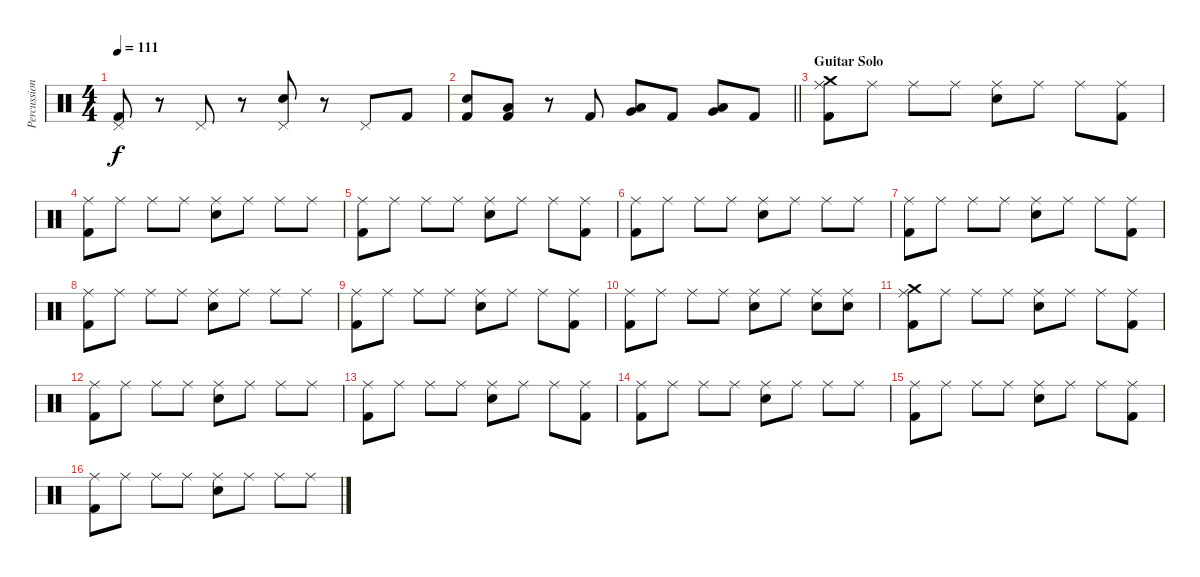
\track ("Percussion" "Percussion") {instrument percussion}
\staff {score}
\articulation defaults
\ts (4 4)
\tempo 111
\clef neutral
\ks c
("Pedal Hi-Hat (hit)" "Kick (hit) 2").8{dy f} r.8 "Pedal Hi-Hat (hit)".8 r.8 ("Pedal Hi-Hat (hit)" "Snare (hit) 2").8 r.8 "Pedal Hi-Hat (hit)".8 "Kick (hit) 2".8 |
\barLineRight lightlight
("Snare (hit) 2" "Kick (hit) 2").8 ("Low Tom (hit)" "Kick (hit) 2").8 r.8 "Kick (hit) 2".8 ("Low Tom (hit)" "Very Low Tom (hit)").8 "Kick (hit) 2".8 ("Very Low Tom (hit)" "Low Floor Tom (hit)").8 "Kick (hit) 2".8 |
\section ("" "Guitar Solo")
("Ride (middle)" "Crash medium (hit)" "Kick (hit) 2").8 "Ride (middle)".8 "Ride (middle)".8 "Ride (middle)".8 ("Ride (middle)" "Snare (hit) 2").8 "Ride (middle)".8 "Ride (middle)".8 ("Ride (middle)" "Kick (hit) 2").8 |
("Ride (middle)" "Kick (hit) 2").8 "Ride (middle)".8 "Ride (middle)".8 "Ride (middle)".8 ("Ride (middle)" "Snare (hit) 2").8 "Ride (middle)".8 "Ride (middle)".8 "Ride (middle)".8 |
("Ride (middle)" "Kick (hit) 2").8 "Ride (middle)".8 "Ride (middle)".8 "Ride (middle)".8 ("Ride (middle)" "Snare (hit) 2").8 "Ride (middle)".8 "Ride (middle)".8 ("Ride (middle)" "Kick (hit) 2").8 |
("Ride (middle)" "Kick (hit) 2").8 "Ride (middle)".8 "Ride (middle)".8 "Ride (middle)".8 ("Ride (middle)" "Snare (hit) 2").8 "Ride (middle)".8 "Ride (middle)".8 "Ride (middle)".8 |
("Ride (middle)" "Kick (hit) 2").8 "Ride (middle)".8 "Ride (middle)".8 "Ride (middle)".8 ("Ride (middle)" "Snare (hit) 2").8 "Ride (middle)".8 "Ride (middle)".8 ("Ride (middle)" "Kick (hit) 2").8 |
("Ride (middle)" "Kick (hit) 2").8 "Ride (middle)".8 "Ride (middle)".8 "Ride (middle)".8 ("Ride (middle)" "Snare (hit) 2").8 "Ride (middle)".8 "Ride (middle)".8 "Ride (middle)".8 |
("Ride (middle)" "Kick (hit) 2").8 "Ride (middle)".8 "Ride (middle)".8 "Ride (middle)".8 ("Ride (middle)" "Snare (hit) 2").8 "Ride (middle)".8 "Ride (middle)".8 ("Ride (middle)" "Kick (hit) 2").8 |
("Ride (middle)" "Kick (hit) 2").8 "Ride (middle)".8 "Ride (middle)".8 "Ride (middle)".8 ("Ride (middle)" "Snare (hit) 2").8 "Ride (middle)".8 ("Ride (middle)" "Snare (hit) 2").8 ("Ride (middle)" "Snare (hit) 2").8 |
("Ride (middle)" "Crash medium (hit)" "Kick (hit) 2").8 "Ride (middle)".8 "Ride (middle)".8 "Ride (middle)".8 ("Ride (middle)" "Snare (hit) 2").8 "Ride (middle)".8 "Ride (middle)".8 ("Ride (middle)" "Kick (hit) 2").8 |
("Ride (middle)" "Kick (hit) 2").8 "Ride (middle)".8 "Ride (middle)".8 "Ride (middle)".8 ("Ride (middle)" "Snare (hit) 2").8 "Ride (middle)".8 "Ride (middle)".8 "Ride (middle)".8 |
("Ride (middle)" "Kick (hit) 2").8 "Ride (middle)".8 "Ride (middle)".8 "Ride (middle)".8 ("Ride (middle)" "Snare (hit) 2").8 "Ride (middle)".8 "Ride (middle)".8 ("Ride (middle)" "Kick (hit) 2").8 |
("Ride (middle)" "Kick (hit) 2").8 "Ride (middle)".8 "Ride (middle)".8 "Ride (middle)".8 ("Ride (middle)" "Snare (hit) 2").8 "Ride (middle)".8 "Ride (middle)".8 "Ride (middle)".8 |
("Ride (middle)" "Kick (hit) 2").8 "Ride (middle)".8 "Ride (middle)".8 "Ride (middle)".8 ("Ride (middle)" "Snare (hit) 2").8 "Ride (middle)".8 "Ride (middle)".8 ("Ride (middle)" "Kick (hit) 2").8 |
("Ride (middle)" "Kick (hit) 2").8 "Ride (middle)".8 "Ride (middle)".8 "Ride (middle)".8 ("Ride (middle)" "Snare (hit) 2").8 "Ride (middle)".8 "Ride (middle)".8 "Ride (middle)".8
